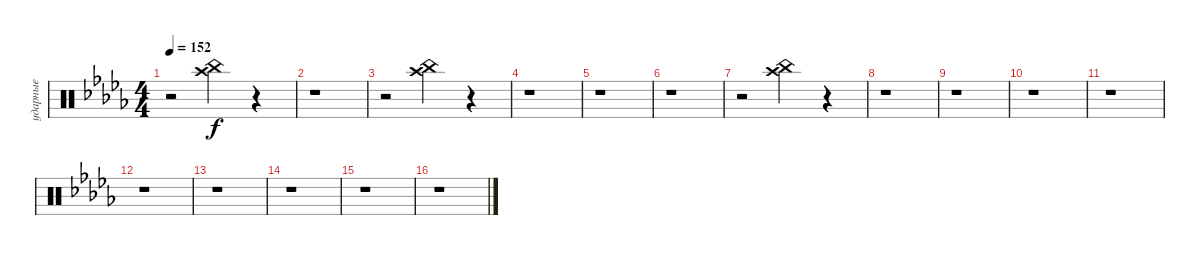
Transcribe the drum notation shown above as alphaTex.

\track ("ударные" "ударные") {instrument percussion}
\staff {score}
\articulation defaults
\ts (4 4)
\tempo 152
\clef neutral
\ks bbminor
r.2{dy f} ("China (hit)" "Crash high (hit)").4 r.4 |
r.1 |
r.2 ("China (hit)" "Crash high (hit)").4 r.4 |
r.1 |
r.1 |
r.1 |
r.2 ("China (hit)" "Crash high (hit)").4 r.4 |
r.1 |
r.1 |
r.1 |
r.1 |
r.1 |
r.1 |
r.1 |
r.1 |
r.1
